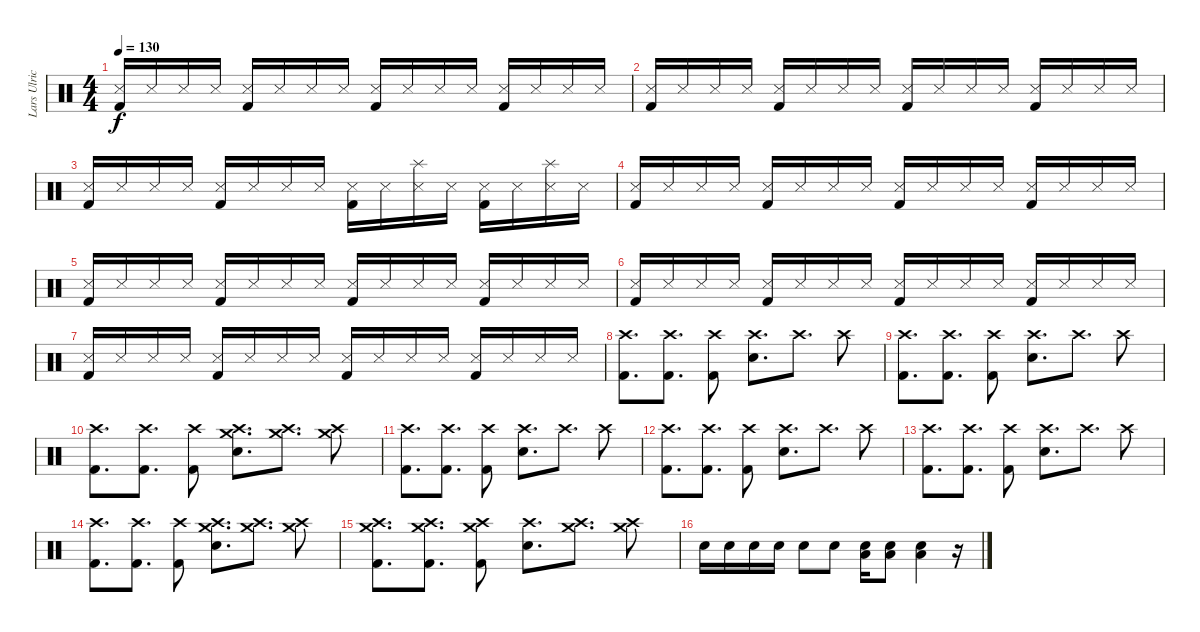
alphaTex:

\track ("Lars Ulrich" "Lars Ulric") {instrument percussion}
\staff {score}
\articulation defaults
\ts (4 4)
\tempo 130
\clef neutral
\ks c
("Metronome (hit)" "Kick (hit) 2").16{dy f} "Snare (side stick) 3".16 "Snare (side stick) 3".16 "Snare (side stick) 3".16 ("Metronome (hit)" "Kick (hit) 2").16 "Snare (side stick) 3".16 "Snare (side stick) 3".16 "Snare (side stick) 3".16 ("Metronome (hit)" "Kick (hit) 2").16 "Snare (side stick) 3".16 "Snare (side stick) 3".16 "Snare (side stick) 3".16 ("Metronome (hit)" "Kick (hit) 2").16 "Snare (side stick) 3".16 "Snare (side stick) 3".16 "Snare (side stick) 3".16 |
("Metronome (hit)" "Kick (hit) 2").16 "Snare (side stick) 3".16 "Snare (side stick) 3".16 "Snare (side stick) 3".16 ("Metronome (hit)" "Kick (hit) 2").16 "Snare (side stick) 3".16 "Snare (side stick) 3".16 "Snare (side stick) 3".16 ("Metronome (hit)" "Kick (hit) 2").16 "Snare (side stick) 3".16 "Snare (side stick) 3".16 "Snare (side stick) 3".16 ("Metronome (hit)" "Kick (hit) 2").16 "Snare (side stick) 3".16 "Snare (side stick) 3".16 "Snare (side stick) 3".16 |
("Metronome (hit)" "Kick (hit) 2").16 "Snare (side stick) 3".16 "Snare (side stick) 3".16 "Snare (side stick) 3".16 ("Metronome (hit)" "Kick (hit) 2").16 "Snare (side stick) 3".16 "Snare (side stick) 3".16 "Snare (side stick) 3".16 ("Metronome (hit)" "Kick (hit) 2").16 "Snare (side stick) 3".16 ("Splash (hit)" "Snare (side stick) 3").16 "Snare (side stick) 3".16 ("Metronome (hit)" "Kick (hit) 2").16 "Snare (side stick) 3".16 ("Splash (hit)" "Snare (side stick) 3").16 "Snare (side stick) 3".16 |
("Metronome (hit)" "Kick (hit) 2").16 "Snare (side stick) 3".16 "Snare (side stick) 3".16 "Snare (side stick) 3".16 ("Metronome (hit)" "Kick (hit) 2").16 "Snare (side stick) 3".16 "Snare (side stick) 3".16 "Snare (side stick) 3".16 ("Metronome (hit)" "Kick (hit) 2").16 "Snare (side stick) 3".16 "Snare (side stick) 3".16 "Snare (side stick) 3".16 ("Metronome (hit)" "Kick (hit) 2").16 "Snare (side stick) 3".16 "Snare (side stick) 3".16 "Snare (side stick) 3".16 |
("Metronome (hit)" "Kick (hit) 2").16 "Snare (side stick) 3".16 "Snare (side stick) 3".16 "Snare (side stick) 3".16 ("Metronome (hit)" "Kick (hit) 2").16 "Snare (side stick) 3".16 "Snare (side stick) 3".16 "Snare (side stick) 3".16 ("Metronome (hit)" "Kick (hit) 2").16 "Snare (side stick) 3".16 "Snare (side stick) 3".16 "Snare (side stick) 3".16 ("Metronome (hit)" "Kick (hit) 2").16 "Snare (side stick) 3".16 "Snare (side stick) 3".16 "Snare (side stick) 3".16 |
("Metronome (hit)" "Kick (hit) 2").16 "Snare (side stick) 3".16 "Snare (side stick) 3".16 "Snare (side stick) 3".16 ("Metronome (hit)" "Kick (hit) 2").16 "Snare (side stick) 3".16 "Snare (side stick) 3".16 "Snare (side stick) 3".16 ("Metronome (hit)" "Kick (hit) 2").16 "Snare (side stick) 3".16 "Snare (side stick) 3".16 "Snare (side stick) 3".16 ("Metronome (hit)" "Kick (hit) 2").16 "Snare (side stick) 3".16 "Snare (side stick) 3".16 "Snare (side stick) 3".16 |
("Metronome (hit)" "Kick (hit) 2").16 "Snare (side stick) 3".16 "Snare (side stick) 3".16 "Snare (side stick) 3".16 ("Metronome (hit)" "Kick (hit) 2").16 "Snare (side stick) 3".16 "Snare (side stick) 3".16 "Snare (side stick) 3".16 ("Metronome (hit)" "Kick (hit) 2").16 "Snare (side stick) 3".16 "Snare (side stick) 3".16 "Snare (side stick) 3".16 ("Metronome (hit)" "Kick (hit) 2").16 "Snare (side stick) 3".16 "Snare (side stick) 3".16 "Snare (side stick) 3".16 |
("Crash high (hit)" "Kick (hit) 2").8{d} ("Crash high (hit)" "Kick (hit) 2").8{d} ("Crash high (hit)" "Kick (hit) 2").8 ("Crash high (hit)" "Electric Snare (hit)").8{d} "Crash high (hit)".8{d} "Crash high (hit)".8 |
("Crash high (hit)" "Kick (hit) 2").8{d} ("Crash high (hit)" "Kick (hit) 2").8{d} ("Crash high (hit)" "Kick (hit) 2").8 ("Crash high (hit)" "Electric Snare (hit)").8{d} "Crash high (hit)".8{d} "Crash high (hit)".8 |
("Crash high (hit)" "Kick (hit) 2").8{d} ("Crash high (hit)" "Kick (hit) 2").8{d} ("Crash high (hit)" "Kick (hit) 2").8 ("Crash medium (hit)" "Crash high (hit)" "Electric Snare (hit)").8{d} ("Crash medium (hit)" "Crash high (hit)").8{d} ("Crash medium (hit)" "Crash high (hit)").8 |
("Crash high (hit)" "Kick (hit) 2").8{d} ("Crash high (hit)" "Kick (hit) 2").8{d} ("Crash high (hit)" "Kick (hit) 2").8 ("Crash high (hit)" "Electric Snare (hit)").8{d} "Crash high (hit)".8{d} "Crash high (hit)".8 |
("Crash high (hit)" "Kick (hit) 2").8{d} ("Crash high (hit)" "Kick (hit) 2").8{d} ("Crash high (hit)" "Kick (hit) 2").8 ("Crash high (hit)" "Electric Snare (hit)").8{d} "Crash high (hit)".8{d} "Crash high (hit)".8 |
("Crash high (hit)" "Kick (hit) 2").8{d} ("Crash high (hit)" "Kick (hit) 2").8{d} ("Crash high (hit)" "Kick (hit) 2").8 ("Crash high (hit)" "Electric Snare (hit)").8{d} "Crash high (hit)".8{d} "Crash high (hit)".8 |
("Crash high (hit)" "Kick (hit) 2").8{d} ("Crash high (hit)" "Kick (hit) 2").8{d} ("Crash high (hit)" "Kick (hit) 2").8 ("Crash medium (hit)" "Crash high (hit)" "Electric Snare (hit)").8{d} ("Crash medium (hit)" "Crash high (hit)").8{d} ("Crash medium (hit)" "Crash high (hit)").8 |
("Crash medium (hit)" "Crash high (hit)" "Kick (hit) 2").8{d} ("Crash medium (hit)" "Crash high (hit)" "Kick (hit) 2").8{d} ("Crash medium (hit)" "Crash high (hit)" "Kick (hit) 2").8 ("Crash high (hit)" "Electric Snare (hit)").8{d} ("Crash medium (hit)" "Crash high (hit)").8{d} ("Crash medium (hit)" "Crash high (hit)").8 |
"Electric Snare (hit)".16 "Electric Snare (hit)".16 "Electric Snare (hit)".16 "Electric Snare (hit)".16 "Electric Snare (hit)".8 "Electric Snare (hit)".8 ("Electric Snare (hit)" "Low Floor Tom (hit)").16 ("Electric Snare (hit)" "Low Floor Tom (hit)").8 ("Electric Snare (hit)" "Low Floor Tom (hit)").4 r.16
